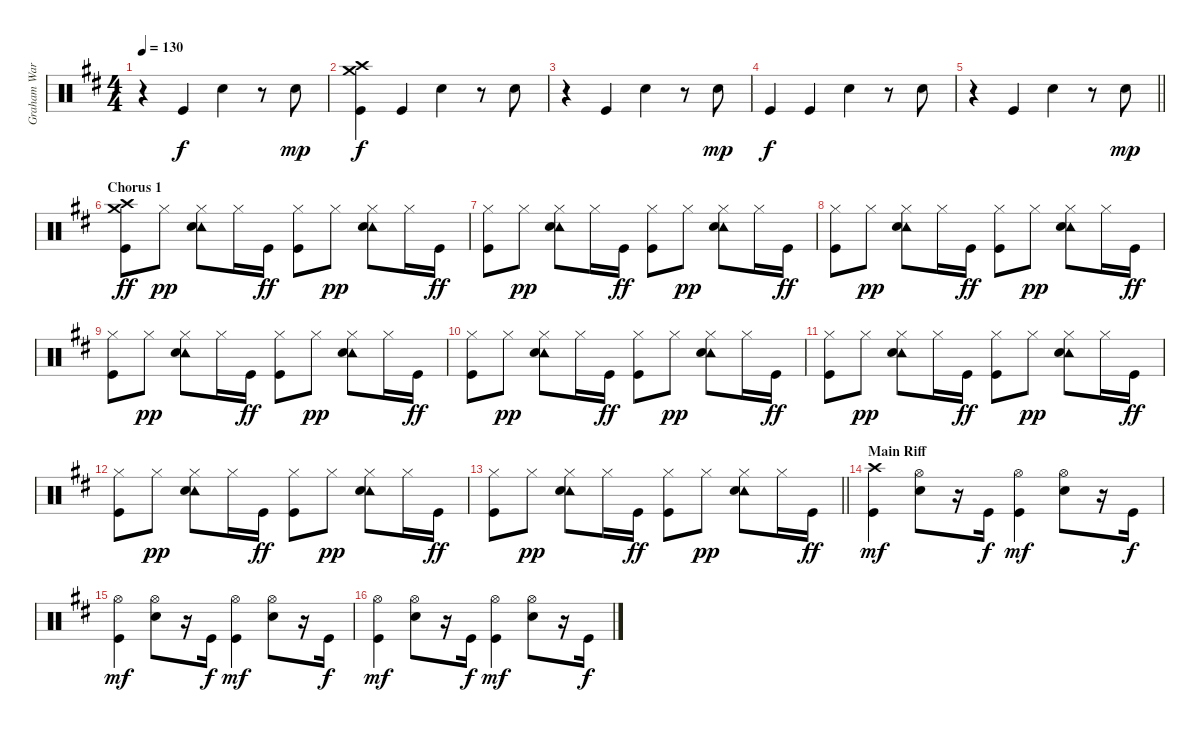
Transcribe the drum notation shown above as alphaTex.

\track ("Graham Ward (DRUMS)" "Graham War") {instrument percussion}
\staff {score}
\articulation defaults
\ts (4 4)
\tempo 130
\clef neutral
\ks d
r.4{dy f} "Kick (hit)".4 "Electric Snare (hit)".4 r.8 "Electric Snare (hit)".8{dy mp} |
("Crash medium (hit)" "Crash high (hit)" "Kick (hit)").4{dy f} "Kick (hit)".4 "Electric Snare (hit)".4 r.8 "Electric Snare (hit)".8 |
r.4 "Kick (hit)".4 "Electric Snare (hit)".4 r.8 "Electric Snare (hit)".8{dy mp} |
"Kick (hit)".4{dy f} "Kick (hit)".4 "Electric Snare (hit)".4 r.8 "Electric Snare (hit)".8 |
\barLineRight lightlight
r.4 "Kick (hit)".4 "Electric Snare (hit)".4 r.8 "Electric Snare (hit)".8{dy mp} |
\section ("" "Chorus 1")
("Crash medium (hit)" "Crash high (hit)" "Kick (hit)").8{dy ff} "Hi-Hat (closed)".8{dy pp} ("Tambourine (hit)" "Snare (hit) 2" "Hi-Hat (closed)").8 "Hi-Hat (closed)".16 "Kick (hit)".16{dy ff} ("Hi-Hat (closed)" "Kick (hit)").8 "Hi-Hat (closed)".8{dy pp} ("Tambourine (hit)" "Snare (hit) 2" "Hi-Hat (closed)").8 "Hi-Hat (closed)".16 "Kick (hit)".16{dy ff} |
("Hi-Hat (closed)" "Kick (hit)").8 "Hi-Hat (closed)".8{dy pp} ("Tambourine (hit)" "Snare (hit) 2" "Hi-Hat (closed)").8 "Hi-Hat (closed)".16 "Kick (hit)".16{dy ff} ("Hi-Hat (closed)" "Kick (hit)").8 "Hi-Hat (closed)".8{dy pp} ("Tambourine (hit)" "Snare (hit) 2" "Hi-Hat (closed)").8 "Hi-Hat (closed)".16 "Kick (hit)".16{dy ff} |
("Hi-Hat (closed)" "Kick (hit)").8 "Hi-Hat (closed)".8{dy pp} ("Tambourine (hit)" "Snare (hit) 2" "Hi-Hat (closed)").8 "Hi-Hat (closed)".16 "Kick (hit)".16{dy ff} ("Hi-Hat (closed)" "Kick (hit)").8 "Hi-Hat (closed)".8{dy pp} ("Tambourine (hit)" "Snare (hit) 2" "Hi-Hat (closed)").8 "Hi-Hat (closed)".16 "Kick (hit)".16{dy ff} |
("Hi-Hat (closed)" "Kick (hit)").8 "Hi-Hat (closed)".8{dy pp} ("Tambourine (hit)" "Snare (hit) 2" "Hi-Hat (closed)").8 "Hi-Hat (closed)".16 "Kick (hit)".16{dy ff} ("Hi-Hat (closed)" "Kick (hit)").8 "Hi-Hat (closed)".8{dy pp} ("Tambourine (hit)" "Snare (hit) 2" "Hi-Hat (closed)").8 "Hi-Hat (closed)".16 "Kick (hit)".16{dy ff} |
("Hi-Hat (closed)" "Kick (hit)").8 "Hi-Hat (closed)".8{dy pp} ("Tambourine (hit)" "Snare (hit) 2" "Hi-Hat (closed)").8 "Hi-Hat (closed)".16 "Kick (hit)".16{dy ff} ("Hi-Hat (closed)" "Kick (hit)").8 "Hi-Hat (closed)".8{dy pp} ("Tambourine (hit)" "Snare (hit) 2" "Hi-Hat (closed)").8 "Hi-Hat (closed)".16 "Kick (hit)".16{dy ff} |
("Hi-Hat (closed)" "Kick (hit)").8 "Hi-Hat (closed)".8{dy pp} ("Tambourine (hit)" "Snare (hit) 2" "Hi-Hat (closed)").8 "Hi-Hat (closed)".16 "Kick (hit)".16{dy ff} ("Hi-Hat (closed)" "Kick (hit)").8 "Hi-Hat (closed)".8{dy pp} ("Tambourine (hit)" "Snare (hit) 2" "Hi-Hat (closed)").8 "Hi-Hat (closed)".16 "Kick (hit)".16{dy ff} |
("Hi-Hat (closed)" "Kick (hit)").8 "Hi-Hat (closed)".8{dy pp} ("Tambourine (hit)" "Snare (hit) 2" "Hi-Hat (closed)").8 "Hi-Hat (closed)".16 "Kick (hit)".16{dy ff} ("Hi-Hat (closed)" "Kick (hit)").8 "Hi-Hat (closed)".8{dy pp} ("Tambourine (hit)" "Snare (hit) 2" "Hi-Hat (closed)").8 "Hi-Hat (closed)".16 "Kick (hit)".16{dy ff} |
\barLineRight lightlight
("Hi-Hat (closed)" "Kick (hit)").8 "Hi-Hat (closed)".8{dy pp} ("Tambourine (hit)" "Snare (hit) 2" "Hi-Hat (closed)").8 "Hi-Hat (closed)".16 "Kick (hit)".16{dy ff} ("Hi-Hat (closed)" "Kick (hit)").8 "Hi-Hat (closed)".8{dy pp} ("Tambourine (hit)" "Snare (hit) 2" "Hi-Hat (closed)").8 "Hi-Hat (closed)".16 "Kick (hit)".16{dy ff} |
\section ("" "Main Riff")
("Crash high (hit)" "Kick (hit)").4{dy mf} ("Snare (hit) 2" "Hi-Hat (open)").8 r.16 "Kick (hit)".16{dy f} ("Hi-Hat (open)" "Kick (hit)").4{dy mf} ("Snare (hit) 2" "Hi-Hat (open)").8 r.16 "Kick (hit)".16{dy f} |
("Hi-Hat (open)" "Kick (hit)").4{dy mf} ("Snare (hit) 2" "Hi-Hat (open)").8 r.16 "Kick (hit)".16{dy f} ("Hi-Hat (open)" "Kick (hit)").4{dy mf} ("Snare (hit) 2" "Hi-Hat (open)").8 r.16 "Kick (hit)".16{dy f} |
("Hi-Hat (open)" "Kick (hit)").4{dy mf} ("Snare (hit) 2" "Hi-Hat (open)").8 r.16 "Kick (hit)".16{dy f} ("Hi-Hat (open)" "Kick (hit)").4{dy mf} ("Snare (hit) 2" "Hi-Hat (open)").8 r.16 "Kick (hit)".16{dy f}
